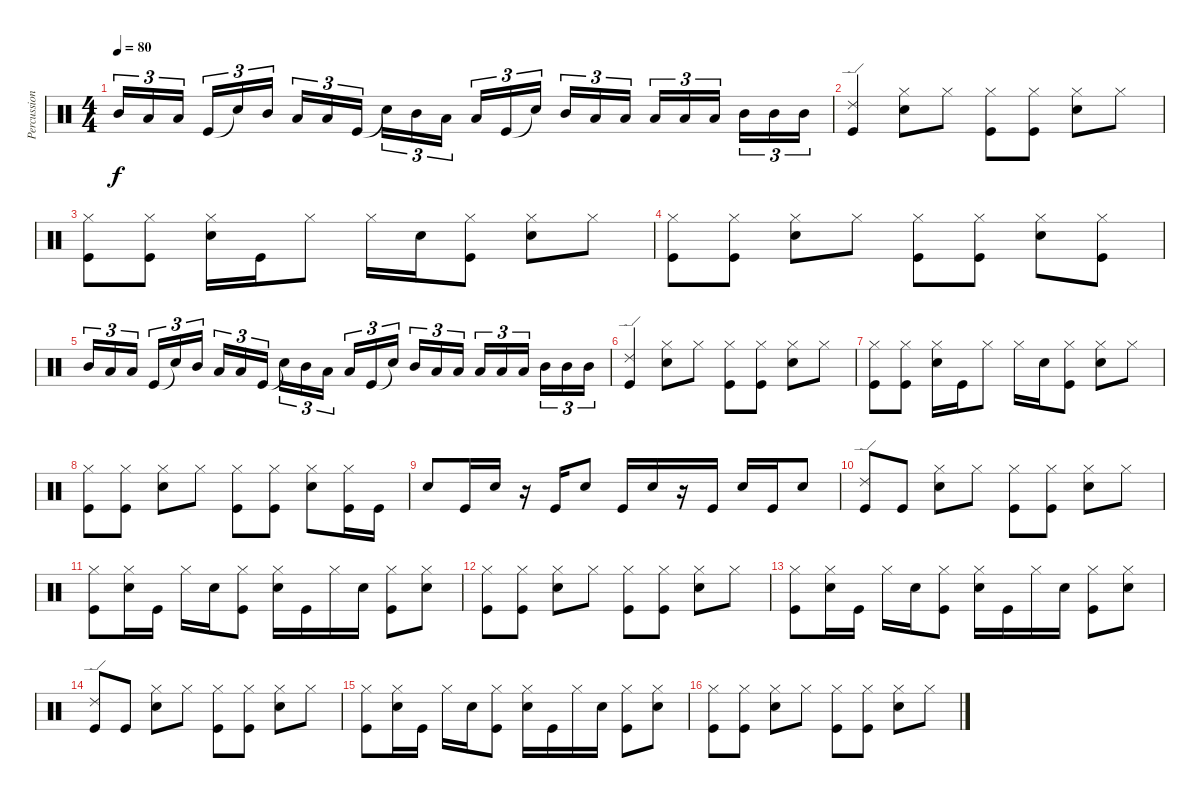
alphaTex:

\track ("Percussions" "Percussion") {instrument percussion}
\staff {score}
\articulation defaults
\ts (4 4)
\tempo 80
\clef neutral
\ks c "Mid Tom (hit)".16{tu (3 2) dy f} "Low Tom (hit)".16{tu (3 2)} "Low Tom (hit)".16{tu (3 2)} "Kick (hit)".16{tu (3 2)} "Snare (hit)"{t}.16{tu (3 2)} "Mid Tom (hit)".16{tu (3 2)} "Low Tom (hit)".16{tu (3 2)} "Low Tom (hit)".16{tu (3 2)} "Kick (hit)".16{tu (3 2)} "Snare (hit)"{t}.16{tu (3 2)} "Mid Tom (hit)".16{tu (3 2)} "Low Tom (hit)".16{tu (3 2)} "Low Tom (hit)".16{tu (3 2)} "Kick (hit)".16{tu (3 2)} "Snare (hit)"{t}.16{tu (3 2)} "Mid Tom (hit)".16{tu (3 2)} "Low Tom (hit)".16{tu (3 2)} "Low Tom (hit)".16{tu (3 2)} "Low Tom (hit)".16{tu (3 2)} "Low Tom (hit)".16{tu (3 2)} "Low Tom (hit)".16{tu (3 2)} "Mid Tom (hit)".16{tu (3 2)} "Mid Tom (hit)".16{tu (3 2)} "Mid Tom (hit)".16{tu (3 2)}
|
("Ride (edge) 2" "Kick (hit)").4 ("Hi-Hat (closed)" "Snare (hit) 2").8 "Hi-Hat (closed)".8 ("Hi-Hat (closed)" "Kick (hit)").8 ("Hi-Hat (closed)" "Kick (hit)").8 ("Hi-Hat (closed)" "Snare (hit) 2").8 "Hi-Hat (closed)".8 |
("Hi-Hat (closed)" "Kick (hit)").8 ("Hi-Hat (closed)" "Kick (hit)").8 ("Hi-Hat (closed)" "Snare (hit) 2").16 "Kick (hit)".16 "Hi-Hat (closed)".8 "Hi-Hat (closed)".16 "Snare (hit) 2".16 ("Hi-Hat (closed)" "Kick (hit)").8 ("Hi-Hat (closed)" "Snare (hit) 2").8 "Hi-Hat (closed)".8 |
("Hi-Hat (closed)" "Kick (hit)").8 ("Hi-Hat (closed)" "Kick (hit)").8 ("Hi-Hat (closed)" "Snare (hit) 2").8 "Hi-Hat (closed)".8 ("Hi-Hat (closed)" "Kick (hit)").8 ("Hi-Hat (closed)" "Kick (hit)").8 ("Hi-Hat (closed)" "Snare (hit) 2").8 ("Hi-Hat (closed)" "Kick (hit)").8 |
"Mid Tom (hit)".16{tu (3 2)} "Low Tom (hit)".16{tu (3 2)} "Low Tom (hit)".16{tu (3 2)} "Kick (hit)".16{tu (3 2)} "Snare (hit)"{t}.16{tu (3 2)} "Mid Tom (hit)".16{tu (3 2)} "Low Tom (hit)".16{tu (3 2)} "Low Tom (hit)".16{tu (3 2)} "Kick (hit)".16{tu (3 2)} "Snare (hit)"{t}.16{tu (3 2)} "Mid Tom (hit)".16{tu (3 2)} "Low Tom (hit)".16{tu (3 2)} "Low Tom (hit)".16{tu (3 2)} "Kick (hit)".16{tu (3 2)} "Snare (hit)"{t}.16{tu (3 2)} "Mid Tom (hit)".16{tu (3 2)} "Low Tom (hit)".16{tu (3 2)} "Low Tom (hit)".16{tu (3 2)} "Low Tom (hit)".16{tu (3 2)} "Low Tom (hit)".16{tu (3 2)} "Low Tom (hit)".16{tu (3 2)} "Mid Tom (hit)".16{tu (3 2)} "Mid Tom (hit)".16{tu (3 2)} "Mid Tom (hit)".16{tu (3 2)} |
("Ride (edge) 2" "Kick (hit)").4 ("Hi-Hat (closed)" "Snare (hit) 2").8 "Hi-Hat (closed)".8 ("Hi-Hat (closed)" "Kick (hit)").8 ("Hi-Hat (closed)" "Kick (hit)").8 ("Hi-Hat (closed)" "Snare (hit) 2").8 "Hi-Hat (closed)".8 |
("Hi-Hat (closed)" "Kick (hit)").8 ("Hi-Hat (closed)" "Kick (hit)").8 ("Hi-Hat (closed)" "Snare (hit) 2").16 "Kick (hit)".16 "Hi-Hat (closed)".8 "Hi-Hat (closed)".16 "Snare (hit) 2".16 ("Hi-Hat (closed)" "Kick (hit)").8 ("Hi-Hat (closed)" "Snare (hit) 2").8 "Hi-Hat (closed)".8 |
("Hi-Hat (closed)" "Kick (hit)").8 ("Hi-Hat (closed)" "Kick (hit)").8 ("Hi-Hat (closed)" "Snare (hit) 2").8 "Hi-Hat (closed)".8 ("Hi-Hat (closed)" "Kick (hit)").8 ("Hi-Hat (closed)" "Kick (hit)").8 ("Hi-Hat (closed)" "Snare (hit) 2").8 ("Hi-Hat (closed)" "Kick (hit)").16 "Kick (hit)".16 |
"Snare (hit) 2".8 "Kick (hit)".16 "Snare (hit) 2".16 r.16 "Kick (hit)".16 "Snare (hit) 2".8 "Kick (hit)".16 "Snare (hit) 2".16 r.16 "Kick (hit)".16 "Snare (hit) 2".16 "Kick (hit)".16 "Snare (hit) 2".8 |
("Ride (edge) 2" "Kick (hit)").8 "Kick (hit)".8 ("Hi-Hat (closed)" "Snare (hit) 2").8 "Hi-Hat (closed)".8 ("Hi-Hat (closed)" "Kick (hit)").8 ("Hi-Hat (closed)" "Kick (hit)").8 ("Hi-Hat (closed)" "Snare (hit) 2").8 "Hi-Hat (closed)".8 |
("Hi-Hat (closed)" "Kick (hit)").8 ("Hi-Hat (closed)" "Snare (hit) 2").16 "Kick (hit)".16 "Hi-Hat (closed)".16 "Snare (hit) 2".16 ("Hi-Hat (closed)" "Kick (hit)").8 ("Hi-Hat (closed)" "Snare (hit) 2").16 "Kick (hit)".16 "Hi-Hat (closed)".16 "Snare (hit) 2".16 ("Hi-Hat (closed)" "Kick (hit)").8 ("Hi-Hat (closed)" "Snare (hit) 2").8 |
("Hi-Hat (closed)" "Kick (hit)").8 ("Hi-Hat (closed)" "Kick (hit)").8 ("Hi-Hat (closed)" "Snare (hit) 2").8 "Hi-Hat (closed)".8 ("Hi-Hat (closed)" "Kick (hit)").8 ("Hi-Hat (closed)" "Kick (hit)").8 ("Hi-Hat (closed)" "Snare (hit) 2").8 "Hi-Hat (closed)".8 |
("Hi-Hat (closed)" "Kick (hit)").8 ("Hi-Hat (closed)" "Snare (hit) 2").16 "Kick (hit)".16 "Hi-Hat (closed)".16 "Snare (hit) 2".16 ("Hi-Hat (closed)" "Kick (hit)").8 ("Hi-Hat (closed)" "Snare (hit) 2").16 "Kick (hit)".16 "Hi-Hat (closed)".16 "Snare (hit) 2".16 ("Hi-Hat (closed)" "Kick (hit)").8 ("Hi-Hat (closed)" "Snare (hit) 2").8 |
("Ride (edge) 2" "Kick (hit)").8 "Kick (hit)".8 ("Hi-Hat (closed)" "Snare (hit) 2").8 "Hi-Hat (closed)".8 ("Hi-Hat (closed)" "Kick (hit)").8 ("Hi-Hat (closed)" "Kick (hit)").8 ("Hi-Hat (closed)" "Snare (hit) 2").8 "Hi-Hat (closed)".8 |
("Hi-Hat (closed)" "Kick (hit)").8 ("Hi-Hat (closed)" "Snare (hit) 2").16 "Kick (hit)".16 "Hi-Hat (closed)".16 "Snare (hit) 2".16 ("Hi-Hat (closed)" "Kick (hit)").8 ("Hi-Hat (closed)" "Snare (hit) 2").16 "Kick (hit)".16 "Hi-Hat (closed)".16 "Snare (hit) 2".16 ("Hi-Hat (closed)" "Kick (hit)").8 ("Hi-Hat (closed)" "Snare (hit) 2").8 |
("Hi-Hat (closed)" "Kick (hit)").8 ("Hi-Hat (closed)" "Kick (hit)").8 ("Hi-Hat (closed)" "Snare (hit) 2").8 "Hi-Hat (closed)".8 ("Hi-Hat (closed)" "Kick (hit)").8 ("Hi-Hat (closed)" "Kick (hit)").8 ("Hi-Hat (closed)" "Snare (hit) 2").8 "Hi-Hat (closed)".8
